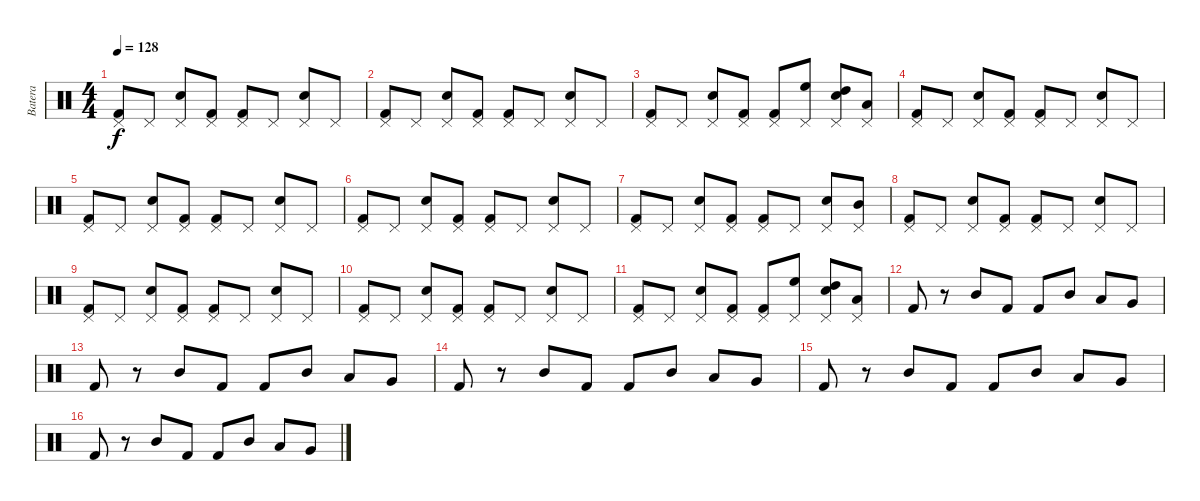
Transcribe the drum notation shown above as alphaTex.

\track ("Batera" "Batera") {instrument percussion}
\staff {score}
\articulation defaults
\ts (4 4)
\tempo 128
\clef neutral
\ks c
("Pedal Hi-Hat (hit)" "Kick (hit) 2").8{dy f} "Pedal Hi-Hat (hit)".8 ("Pedal Hi-Hat (hit)" "Snare (hit) 2").8 ("Pedal Hi-Hat (hit)" "Kick (hit) 2").8 ("Pedal Hi-Hat (hit)" "Kick (hit) 2").8 "Pedal Hi-Hat (hit)".8 ("Pedal Hi-Hat (hit)" "Snare (hit) 2").8 "Pedal Hi-Hat (hit)".8 |
("Pedal Hi-Hat (hit)" "Kick (hit) 2").8 "Pedal Hi-Hat (hit)".8 ("Pedal Hi-Hat (hit)" "Snare (hit) 2").8 ("Pedal Hi-Hat (hit)" "Kick (hit) 2").8 ("Pedal Hi-Hat (hit)" "Kick (hit) 2").8 "Pedal Hi-Hat (hit)".8 ("Pedal Hi-Hat (hit)" "Snare (hit) 2").8 "Pedal Hi-Hat (hit)".8 |
("Pedal Hi-Hat (hit)" "Kick (hit) 2").8 "Pedal Hi-Hat (hit)".8 ("Pedal Hi-Hat (hit)" "Snare (hit) 2").8 ("Pedal Hi-Hat (hit)" "Kick (hit) 2").8 ("Pedal Hi-Hat (hit)" "Kick (hit) 2").8 ("High Floor Tom (hit)" "Pedal Hi-Hat (hit)").8 ("High Tom (hit)" "Pedal Hi-Hat (hit)" "Snare (hit) 2").8 ("Low Tom (hit)" "Pedal Hi-Hat (hit)").8 |
("Pedal Hi-Hat (hit)" "Kick (hit) 2").8 "Pedal Hi-Hat (hit)".8 ("Pedal Hi-Hat (hit)" "Snare (hit) 2").8 ("Pedal Hi-Hat (hit)" "Kick (hit) 2").8 ("Pedal Hi-Hat (hit)" "Kick (hit) 2").8 "Pedal Hi-Hat (hit)".8 ("Pedal Hi-Hat (hit)" "Snare (hit) 2").8 "Pedal Hi-Hat (hit)".8 |
("Pedal Hi-Hat (hit)" "Kick (hit) 2").8 "Pedal Hi-Hat (hit)".8 ("Pedal Hi-Hat (hit)" "Snare (hit) 2").8 ("Pedal Hi-Hat (hit)" "Kick (hit) 2").8 ("Pedal Hi-Hat (hit)" "Kick (hit) 2").8 "Pedal Hi-Hat (hit)".8 ("Pedal Hi-Hat (hit)" "Snare (hit) 2").8 "Pedal Hi-Hat (hit)".8 |
("Pedal Hi-Hat (hit)" "Kick (hit) 2").8 "Pedal Hi-Hat (hit)".8 ("Pedal Hi-Hat (hit)" "Snare (hit) 2").8 ("Pedal Hi-Hat (hit)" "Kick (hit) 2").8 ("Pedal Hi-Hat (hit)" "Kick (hit) 2").8 "Pedal Hi-Hat (hit)".8 ("Pedal Hi-Hat (hit)" "Snare (hit) 2").8 "Pedal Hi-Hat (hit)".8 |
("Pedal Hi-Hat (hit)" "Kick (hit) 2").8 "Pedal Hi-Hat (hit)".8 ("Pedal Hi-Hat (hit)" "Snare (hit) 2").8 ("Pedal Hi-Hat (hit)" "Kick (hit) 2").8 ("Pedal Hi-Hat (hit)" "Kick (hit) 2").8 "Pedal Hi-Hat (hit)".8 ("Pedal Hi-Hat (hit)" "Snare (hit) 2").8 ("Mid Tom (hit)" "Pedal Hi-Hat (hit)").8 |
("Pedal Hi-Hat (hit)" "Kick (hit) 2").8 "Pedal Hi-Hat (hit)".8 ("Pedal Hi-Hat (hit)" "Snare (hit) 2").8 ("Pedal Hi-Hat (hit)" "Kick (hit) 2").8 ("Pedal Hi-Hat (hit)" "Kick (hit) 2").8 "Pedal Hi-Hat (hit)".8 ("Pedal Hi-Hat (hit)" "Snare (hit) 2").8 "Pedal Hi-Hat (hit)".8 |
("Pedal Hi-Hat (hit)" "Kick (hit) 2").8 "Pedal Hi-Hat (hit)".8 ("Pedal Hi-Hat (hit)" "Snare (hit) 2").8 ("Pedal Hi-Hat (hit)" "Kick (hit) 2").8 ("Pedal Hi-Hat (hit)" "Kick (hit) 2").8 "Pedal Hi-Hat (hit)".8 ("Pedal Hi-Hat (hit)" "Snare (hit) 2").8 "Pedal Hi-Hat (hit)".8 |
("Pedal Hi-Hat (hit)" "Kick (hit) 2").8 "Pedal Hi-Hat (hit)".8 ("Pedal Hi-Hat (hit)" "Snare (hit) 2").8 ("Pedal Hi-Hat (hit)" "Kick (hit) 2").8 ("Pedal Hi-Hat (hit)" "Kick (hit) 2").8 "Pedal Hi-Hat (hit)".8 ("Pedal Hi-Hat (hit)" "Snare (hit) 2").8 "Pedal Hi-Hat (hit)".8 |
("Pedal Hi-Hat (hit)" "Kick (hit) 2").8 "Pedal Hi-Hat (hit)".8 ("Pedal Hi-Hat (hit)" "Snare (hit) 2").8 ("Pedal Hi-Hat (hit)" "Kick (hit) 2").8 ("Pedal Hi-Hat (hit)" "Kick (hit) 2").8 ("High Floor Tom (hit)" "Pedal Hi-Hat (hit)").8 ("High Tom (hit)" "Pedal Hi-Hat (hit)" "Snare (hit) 2").8 ("Low Tom (hit)" "Pedal Hi-Hat (hit)").8 |
"Kick (hit) 2".8 r.8 "Mid Tom (hit)".8 "Kick (hit) 2".8 "Kick (hit) 2".8 "Mid Tom (hit)".8 "Low Tom (hit)".8 "Very Low Tom (hit)".8 |
"Kick (hit) 2".8 r.8 "Mid Tom (hit)".8 "Kick (hit) 2".8 "Kick (hit) 2".8 "Mid Tom (hit)".8 "Low Tom (hit)".8 "Very Low Tom (hit)".8 |
"Kick (hit) 2".8 r.8 "Mid Tom (hit)".8 "Kick (hit) 2".8 "Kick (hit) 2".8 "Mid Tom (hit)".8 "Low Tom (hit)".8 "Very Low Tom (hit)".8 |
"Kick (hit) 2".8 r.8 "Mid Tom (hit)".8 "Kick (hit) 2".8 "Kick (hit) 2".8 "Mid Tom (hit)".8 "Low Tom (hit)".8 "Very Low Tom (hit)".8 |
"Kick (hit) 2".8 r.8 "Mid Tom (hit)".8 "Kick (hit) 2".8 "Kick (hit) 2".8 "Mid Tom (hit)".8 "Low Tom (hit)".8 "Very Low Tom (hit)".8
